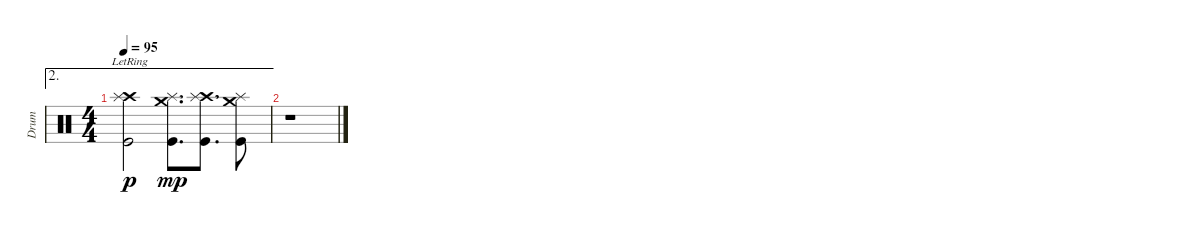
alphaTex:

\track ("Drum" "Drum") {instrument percussion}
\staff {score}
\articulation defaults
\ae 2
\ts (4 4)
\tempo 95
\clef neutral
\ks c
("Kick (hit)" "Crash high (hit)"{lr} "Splash (hit)"{tr (57 64)}).2{dy p} ("Kick (hit)" "Crash medium (hit)" "Splash (hit)"{tr (49 64)}).8{d dy mp} ("Kick (hit)" "Crash high (hit)" "Splash (hit)"{tr (57 64)}).8{d} ("Kick (hit)" "Crash medium (hit)" "Splash (hit)"{tr (49 64)}).8 |
r.1
